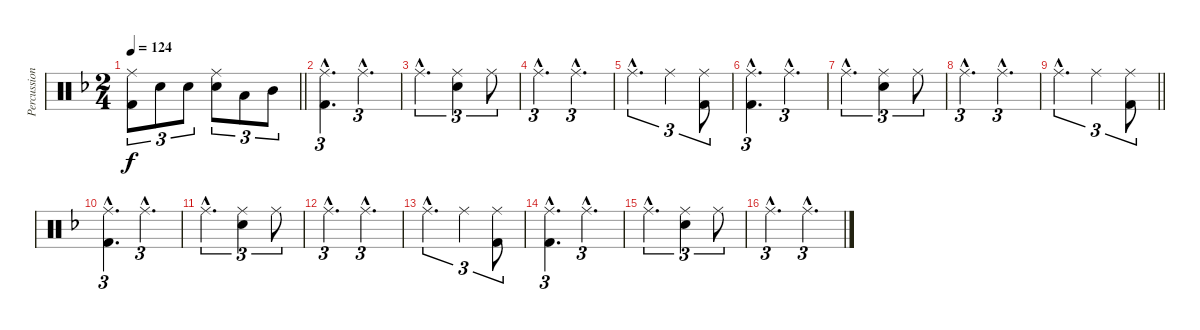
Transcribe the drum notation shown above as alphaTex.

\track ("Percussions" "Percussion") {instrument percussion}
\staff {score}
\articulation defaults
\ts (2 4)
\tempo 124
\clef neutral
\barLineRight lightlight
\ks dminor
("Ride (middle)" "Kick (hit) 2").8{tu (3 2) dy f} "Snare (hit) 2".8{tu (3 2)} "Snare (hit) 2".8{tu (3 2)} ("Ride (middle)" "Snare (hit) 2").8{tu (3 2)} "Low Tom (hit)".8{tu (3 2)} "Mid Tom (hit)".8{tu (3 2)} |
("Ride (middle)"{hac} "Kick (hit) 2"{hac}).4{d tu (3 2)} "Ride (middle)"{hac}.4{d tu (3 2)} |
"Ride (middle)"{hac}.4{d tu (3 2)} ("Ride (middle)" "Snare (hit) 2").4{tu (3 2)} "Ride (middle)".8{tu (3 2)} |
"Ride (middle)"{hac}.4{d tu (3 2)} "Ride (middle)"{hac}.4{d tu (3 2)} |
"Ride (middle)"{hac}.4{d tu (3 2)} "Ride (middle)".4{tu (3 2)} ("Ride (middle)" "Kick (hit) 2").8{tu (3 2)} |
("Ride (middle)"{hac} "Kick (hit) 2"{hac}).4{d tu (3 2)} "Ride (middle)"{hac}.4{d tu (3 2)} |
"Ride (middle)"{hac}.4{d tu (3 2)} ("Ride (middle)" "Snare (hit) 2").4{tu (3 2)} "Ride (middle)".8{tu (3 2)} |
"Ride (middle)"{hac}.4{d tu (3 2)} "Ride (middle)"{hac}.4{d tu (3 2)} |
\barLineRight lightlight "Ride (middle)"{hac}.4{d tu (3 2)} "Ride (middle)".4{tu (3 2)}
("Ride (middle)" "Kick (hit) 2").8{tu (3 2)} |
("Ride (middle)"{hac} "Kick (hit) 2"{hac}).4{d tu (3 2)} "Ride (middle)"{hac}.4{d tu (3 2)} |
"Ride (middle)"{hac}.4{d tu (3 2)} ("Ride (middle)" "Snare (hit) 2").4{tu (3 2)} "Ride (middle)".8{tu (3 2)} |
"Ride (middle)"{hac}.4{d tu (3 2)} "Ride (middle)"{hac}.4{d tu (3 2)} |
"Ride (middle)"{hac}.4{d tu (3 2)} "Ride (middle)".4{tu (3 2)} ("Ride (middle)" "Kick (hit) 2").8{tu (3 2)} |
("Ride (middle)"{hac} "Kick (hit) 2"{hac}).4{d tu (3 2)} "Ride (middle)"{hac}.4{d tu (3 2)} |
"Ride (middle)"{hac}.4{d tu (3 2)} ("Ride (middle)" "Snare (hit) 2").4{tu (3 2)} "Ride (middle)".8{tu (3 2)} |
"Ride (middle)"{hac}.4{d tu (3 2)} "Ride (middle)"{hac}.4{d tu (3 2)}
